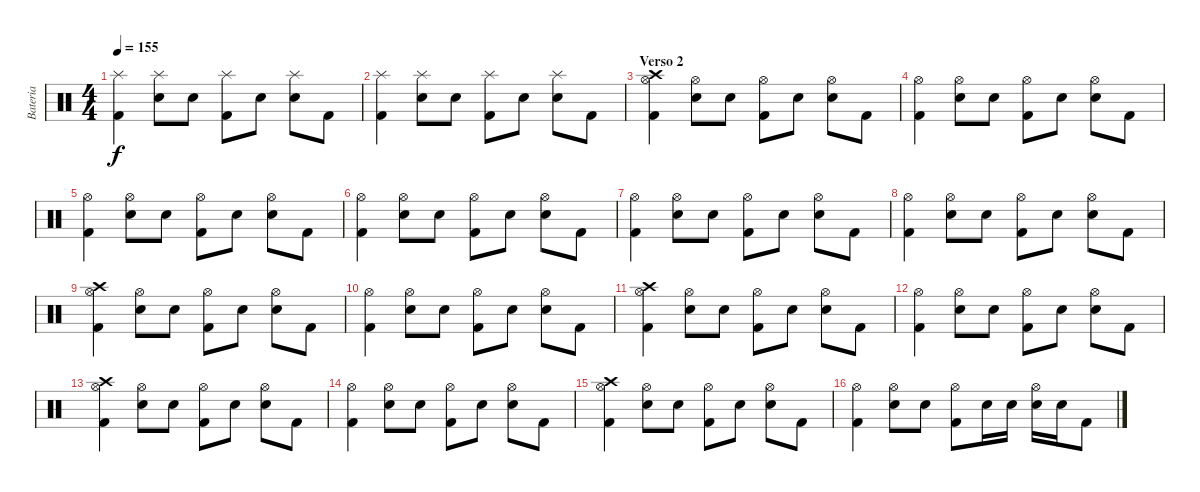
\track ("Bateria" "Bateria") {instrument percussion}
\staff {score}
\articulation defaults
\ts (4 4)
\tempo 155
\clef neutral
\ks c
("Splash (hit)" "Kick (hit) 2").4{dy f} ("Splash (hit)" "Electric Snare (hit)").8 "Electric Snare (hit)".8 ("Splash (hit)" "Kick (hit) 2").8 "Electric Snare (hit)".8 ("Splash (hit)" "Electric Snare (hit)").8 "Kick (hit) 2".8 |
("Splash (hit)" "Kick (hit) 2").4 ("Splash (hit)" "Electric Snare (hit)").8 "Electric Snare (hit)".8 ("Splash (hit)" "Kick (hit) 2").8 "Electric Snare (hit)".8 ("Splash (hit)" "Electric Snare (hit)").8 "Kick (hit) 2".8 |
\section ("" "Verso 2")
("Crash high (hit)" "Hi-Hat (open)" "Kick (hit) 2").4 ("Hi-Hat (open)" "Electric Snare (hit)").8 "Electric Snare (hit)".8 ("Hi-Hat (open)" "Kick (hit) 2").8 "Electric Snare (hit)".8 ("Hi-Hat (open)" "Electric Snare (hit)").8 "Kick (hit) 2".8 |
("Hi-Hat (open)" "Kick (hit) 2").4 ("Hi-Hat (open)" "Electric Snare (hit)").8 "Electric Snare (hit)".8 ("Hi-Hat (open)" "Kick (hit) 2").8 "Electric Snare (hit)".8 ("Hi-Hat (open)" "Electric Snare (hit)").8 "Kick (hit) 2".8 |
("Hi-Hat (open)" "Kick (hit) 2").4 ("Hi-Hat (open)" "Electric Snare (hit)").8 "Electric Snare (hit)".8 ("Hi-Hat (open)" "Kick (hit) 2").8 "Electric Snare (hit)".8 ("Hi-Hat (open)" "Electric Snare (hit)").8 "Kick (hit) 2".8 |
("Hi-Hat (open)" "Kick (hit) 2").4 ("Hi-Hat (open)" "Electric Snare (hit)").8 "Electric Snare (hit)".8 ("Hi-Hat (open)" "Kick (hit) 2").8 "Electric Snare (hit)".8 ("Hi-Hat (open)" "Electric Snare (hit)").8 "Kick (hit) 2".8 |
("Hi-Hat (open)" "Kick (hit) 2").4 ("Hi-Hat (open)" "Electric Snare (hit)").8 "Electric Snare (hit)".8 ("Hi-Hat (open)" "Kick (hit) 2").8 "Electric Snare (hit)".8 ("Hi-Hat (open)" "Electric Snare (hit)").8 "Kick (hit) 2".8 |
("Hi-Hat (open)" "Kick (hit) 2").4 ("Hi-Hat (open)" "Electric Snare (hit)").8 "Electric Snare (hit)".8 ("Hi-Hat (open)" "Kick (hit) 2").8 "Electric Snare (hit)".8 ("Hi-Hat (open)" "Electric Snare (hit)").8 "Kick (hit) 2".8 |
("Crash high (hit)" "Hi-Hat (open)" "Kick (hit) 2").4 ("Hi-Hat (open)" "Electric Snare (hit)").8 "Electric Snare (hit)".8 ("Hi-Hat (open)" "Kick (hit) 2").8 "Electric Snare (hit)".8 ("Hi-Hat (open)" "Electric Snare (hit)").8 "Kick (hit) 2".8 |
("Hi-Hat (open)" "Kick (hit) 2").4 ("Hi-Hat (open)" "Electric Snare (hit)").8 "Electric Snare (hit)".8 ("Hi-Hat (open)" "Kick (hit) 2").8 "Electric Snare (hit)".8 ("Hi-Hat (open)" "Electric Snare (hit)").8 "Kick (hit) 2".8 |
("Crash high (hit)" "Hi-Hat (open)" "Kick (hit) 2").4 ("Hi-Hat (open)" "Electric Snare (hit)").8 "Electric Snare (hit)".8 ("Hi-Hat (open)" "Kick (hit) 2").8 "Electric Snare (hit)".8 ("Hi-Hat (open)" "Electric Snare (hit)").8 "Kick (hit) 2".8 |
("Hi-Hat (open)" "Kick (hit) 2").4 ("Hi-Hat (open)" "Electric Snare (hit)").8 "Electric Snare (hit)".8 ("Hi-Hat (open)" "Kick (hit) 2").8 "Electric Snare (hit)".8 ("Hi-Hat (open)" "Electric Snare (hit)").8 "Kick (hit) 2".8 |
("Crash high (hit)" "Hi-Hat (open)" "Kick (hit) 2").4 ("Hi-Hat (open)" "Electric Snare (hit)").8 "Electric Snare (hit)".8 ("Hi-Hat (open)" "Kick (hit) 2").8 "Electric Snare (hit)".8 ("Hi-Hat (open)" "Electric Snare (hit)").8 "Kick (hit) 2".8 |
("Hi-Hat (open)" "Kick (hit) 2").4 ("Hi-Hat (open)" "Electric Snare (hit)").8 "Electric Snare (hit)".8 ("Hi-Hat (open)" "Kick (hit) 2").8 "Electric Snare (hit)".8 ("Hi-Hat (open)" "Electric Snare (hit)").8 "Kick (hit) 2".8 |
("Crash high (hit)" "Hi-Hat (open)" "Kick (hit) 2").4 ("Hi-Hat (open)" "Electric Snare (hit)").8 "Electric Snare (hit)".8 ("Hi-Hat (open)" "Kick (hit) 2").8 "Electric Snare (hit)".8 ("Hi-Hat (open)" "Electric Snare (hit)").8 "Kick (hit) 2".8 |
("Hi-Hat (open)" "Kick (hit) 2").4 ("Hi-Hat (open)" "Electric Snare (hit)").8 "Electric Snare (hit)".8 ("Hi-Hat (open)" "Kick (hit) 2").8 "Electric Snare (hit)".16 "Electric Snare (hit)".16 ("Hi-Hat (open)" "Electric Snare (hit)").16 "Electric Snare (hit)".16 "Kick (hit) 2".8
